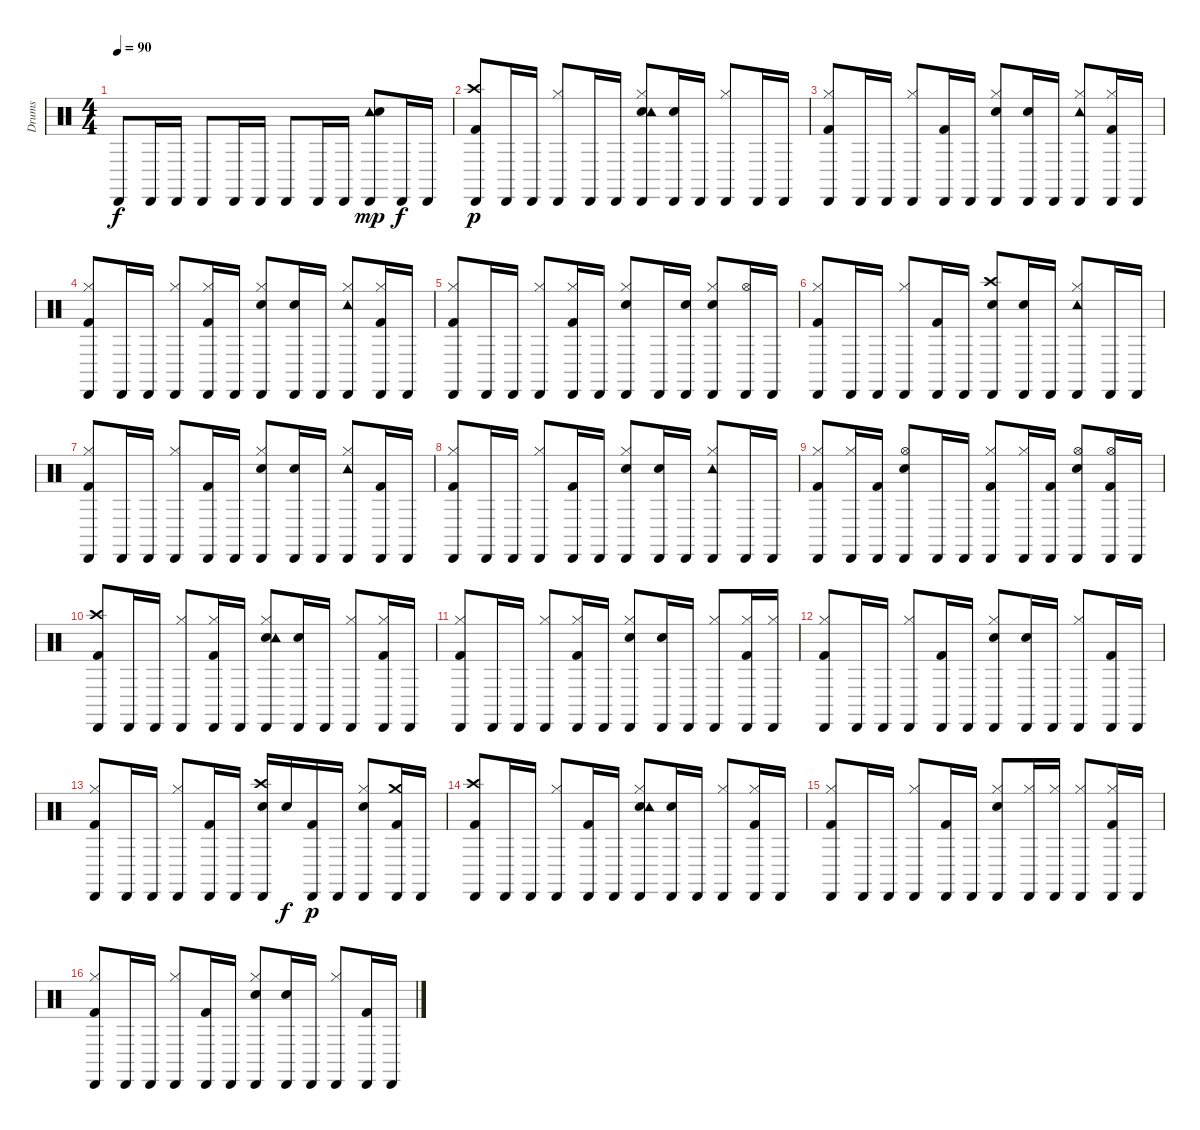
\track ("Drums" "Drums") {instrument percussion}
\staff {score}
\articulation defaults
\ts (4 4)
\tempo 90
\clef neutral
\ks c "Cabasa (hit)".8{dy f} "Cabasa (hit)".16 "Cabasa (hit)".16 "Cabasa (hit)".8 "Cabasa (hit)".16 "Cabasa (hit)".16 "Cabasa (hit)".8 "Cabasa (hit)".16 "Cabasa (hit)".16
("Tambourine (hit)" "Cabasa (hit)" "Electric Snare (hit)").8{dy mp} "Cabasa (hit)".16{dy f} "Cabasa (hit)".16 |
("Crash high (hit)" "Cabasa (hit)" "Kick (hit) 2").8{dy p} "Cabasa (hit)".16 "Cabasa (hit)".16 ("Hi-Hat (closed)" "Cabasa (hit)").8 "Cabasa (hit)".16 "Cabasa (hit)".16 ("Hi-Hat (closed)" "Cabasa (hit)" "Electric Snare (hit)" "Tambourine (hit)").8 ("Cabasa (hit)" "Electric Snare (hit)").16 "Cabasa (hit)".16 ("Hi-Hat (closed)" "Cabasa (hit)").8 "Cabasa (hit)".16 "Cabasa (hit)".16 |
("Hi-Hat (closed)" "Cabasa (hit)" "Kick (hit) 2").8 "Cabasa (hit)".16 "Cabasa (hit)".16 ("Hi-Hat (closed)" "Cabasa (hit)").8 ("Cabasa (hit)" "Kick (hit) 2").16 "Cabasa (hit)".16 ("Hi-Hat (closed)" "Cabasa (hit)" "Electric Snare (hit)").8 ("Cabasa (hit)" "Electric Snare (hit)").16 "Cabasa (hit)".16 ("Hi-Hat (closed)" "Cabasa (hit)" "Tambourine (hit)").8 ("Hi-Hat (closed)" "Cabasa (hit)" "Kick (hit) 2").16 "Cabasa (hit)".16 |
("Hi-Hat (closed)" "Cabasa (hit)" "Kick (hit) 2").8 "Cabasa (hit)".16 "Cabasa (hit)".16 ("Hi-Hat (closed)" "Cabasa (hit)").8 ("Hi-Hat (closed)" "Cabasa (hit)" "Kick (hit) 2").16 "Cabasa (hit)".16 ("Hi-Hat (closed)" "Cabasa (hit)" "Electric Snare (hit)").8 ("Cabasa (hit)" "Electric Snare (hit)").16 "Cabasa (hit)".16 ("Hi-Hat (closed)" "Cabasa (hit)" "Tambourine (hit)").8 ("Hi-Hat (closed)" "Cabasa (hit)" "Kick (hit) 2").16 "Cabasa (hit)".16 |
("Hi-Hat (closed)" "Cabasa (hit)" "Kick (hit) 2").8 "Cabasa (hit)".16 "Cabasa (hit)".16 ("Hi-Hat (closed)" "Cabasa (hit)").8 ("Hi-Hat (closed)" "Cabasa (hit)" "Kick (hit) 2").16 "Cabasa (hit)".16 ("Hi-Hat (closed)" "Cabasa (hit)" "Electric Snare (hit)").8 "Cabasa (hit)".16 ("Cabasa (hit)" "Electric Snare (hit)").16 ("Hi-Hat (closed)" "Cabasa (hit)" "Electric Snare (hit)").8 ("Hi-Hat (open)" "Cabasa (hit)").16 "Cabasa (hit)".16 |
("Hi-Hat (closed)" "Cabasa (hit)" "Kick (hit) 2").8 "Cabasa (hit)".16 "Cabasa (hit)".16 ("Hi-Hat (closed)" "Cabasa (hit)").8 ("Cabasa (hit)" "Kick (hit) 2").16 "Cabasa (hit)".16 ("Crash high (hit)" "Cabasa (hit)" "Electric Snare (hit)").8 ("Cabasa (hit)" "Electric Snare (hit)").16 "Cabasa (hit)".16 ("Hi-Hat (closed)" "Cabasa (hit)" "Tambourine (hit)").8 "Cabasa (hit)".16 "Cabasa (hit)".16 |
("Hi-Hat (closed)" "Cabasa (hit)" "Kick (hit) 2").8 "Cabasa (hit)".16 "Cabasa (hit)".16 ("Hi-Hat (closed)" "Cabasa (hit)").8 ("Cabasa (hit)" "Kick (hit) 2").16 "Cabasa (hit)".16 ("Hi-Hat (closed)" "Cabasa (hit)" "Electric Snare (hit)").8 ("Cabasa (hit)" "Electric Snare (hit)").16 "Cabasa (hit)".16 ("Hi-Hat (closed)" "Cabasa (hit)" "Tambourine (hit)").8 ("Cabasa (hit)" "Kick (hit) 2").16 "Cabasa (hit)".16 |
("Hi-Hat (closed)" "Cabasa (hit)" "Kick (hit) 2").8 "Cabasa (hit)".16 "Cabasa (hit)".16 ("Hi-Hat (closed)" "Cabasa (hit)").8 ("Cabasa (hit)" "Kick (hit) 2").16 "Cabasa (hit)".16 ("Hi-Hat (closed)" "Cabasa (hit)" "Electric Snare (hit)").8 ("Cabasa (hit)" "Electric Snare (hit)").16 "Cabasa (hit)".16 ("Hi-Hat (closed)" "Cabasa (hit)" "Tambourine (hit)").8 "Cabasa (hit)".16 "Cabasa (hit)".16 |
("Hi-Hat (closed)" "Cabasa (hit)" "Kick (hit) 2").8 ("Hi-Hat (closed)" "Cabasa (hit)").16 ("Cabasa (hit)" "Kick (hit) 2").16 ("Hi-Hat (open)" "Cabasa (hit)" "Electric Snare (hit)").8 "Cabasa (hit)".16 "Cabasa (hit)".16 ("Hi-Hat (closed)" "Cabasa (hit)" "Kick (hit) 2").8 ("Hi-Hat (closed)" "Cabasa (hit)").16 ("Cabasa (hit)" "Kick (hit) 2").16 ("Hi-Hat (open)" "Cabasa (hit)" "Electric Snare (hit)").8 ("Hi-Hat (open)" "Cabasa (hit)" "Kick (hit) 2").16 "Cabasa (hit)".16 |
("Crash high (hit)" "Cabasa (hit)" "Kick (hit) 2").8 "Cabasa (hit)".16 "Cabasa (hit)".16 ("Hi-Hat (closed)" "Cabasa (hit)").8 ("Hi-Hat (closed)" "Cabasa (hit)" "Kick (hit) 2").16 "Cabasa (hit)".16 ("Hi-Hat (closed)" "Cabasa (hit)" "Electric Snare (hit)" "Tambourine (hit)").8 ("Cabasa (hit)" "Electric Snare (hit)").16 "Cabasa (hit)".16 ("Hi-Hat (closed)" "Cabasa (hit)").8 ("Hi-Hat (closed)" "Cabasa (hit)" "Kick (hit) 2").16 "Cabasa (hit)".16 |
("Hi-Hat (closed)" "Cabasa (hit)" "Kick (hit) 2").8 "Cabasa (hit)".16 "Cabasa (hit)".16 ("Hi-Hat (closed)" "Cabasa (hit)").8 ("Hi-Hat (closed)" "Cabasa (hit)" "Kick (hit) 2").16 "Cabasa (hit)".16 ("Hi-Hat (closed)" "Cabasa (hit)" "Electric Snare (hit)").8 ("Cabasa (hit)" "Electric Snare (hit)").16 "Cabasa (hit)".16 ("Hi-Hat (closed)" "Cabasa (hit)").8 ("Hi-Hat (closed)" "Cabasa (hit)" "Kick (hit) 2").16 ("Hi-Hat (closed)" "Cabasa (hit)").16 |
("Hi-Hat (closed)" "Cabasa (hit)" "Kick (hit) 2").8 "Cabasa (hit)".16 "Cabasa (hit)".16 ("Hi-Hat (closed)" "Cabasa (hit)").8 ("Cabasa (hit)" "Kick (hit) 2").16 "Cabasa (hit)".16 ("Hi-Hat (closed)" "Cabasa (hit)" "Electric Snare (hit)").8 ("Cabasa (hit)" "Electric Snare (hit)").16 "Cabasa (hit)".16 ("Hi-Hat (closed)" "Cabasa (hit)").8 ("Cabasa (hit)" "Kick (hit) 2").16 "Cabasa (hit)".16 |
("Hi-Hat (closed)" "Cabasa (hit)" "Kick (hit) 2").8 "Cabasa (hit)".16 "Cabasa (hit)".16 ("Hi-Hat (closed)" "Cabasa (hit)").8 ("Cabasa (hit)" "Kick (hit) 2").16 "Cabasa (hit)".16 ("Crash high (hit)" "Cabasa (hit)" "Electric Snare (hit)").16 "Electric Snare (hit)".16{dy f} ("Cabasa (hit)" "Kick (hit) 2").16{dy p} "Cabasa (hit)".16 ("Hi-Hat (closed)" "Cabasa (hit)" "Electric Snare (hit)").8 ("Crash medium (hit)" "Cabasa (hit)" "Kick (hit) 2").16 "Cabasa (hit)".16 |
("Crash high (hit)" "Cabasa (hit)" "Kick (hit) 2").8 "Cabasa (hit)".16 "Cabasa (hit)".16 ("Hi-Hat (closed)" "Cabasa (hit)").8 ("Cabasa (hit)" "Kick (hit) 2").16 "Cabasa (hit)".16 ("Hi-Hat (closed)" "Cabasa (hit)" "Electric Snare (hit)" "Tambourine (hit)").8 ("Cabasa (hit)" "Electric Snare (hit)").16 "Cabasa (hit)".16 ("Hi-Hat (closed)" "Cabasa (hit)").8 ("Hi-Hat (closed)" "Cabasa (hit)" "Kick (hit) 2").16 "Cabasa (hit)".16 |
("Hi-Hat (closed)" "Cabasa (hit)" "Kick (hit) 2").8 "Cabasa (hit)".16 "Cabasa (hit)".16 ("Hi-Hat (closed)" "Cabasa (hit)").8 ("Cabasa (hit)" "Kick (hit) 2").16 "Cabasa (hit)".16 ("Hi-Hat (closed)" "Cabasa (hit)" "Electric Snare (hit)").8 ("Hi-Hat (closed)" "Cabasa (hit)").16 ("Hi-Hat (closed)" "Cabasa (hit)").16 ("Hi-Hat (closed)" "Cabasa (hit)").8 ("Hi-Hat (closed)" "Cabasa (hit)" "Kick (hit) 2").16 "Cabasa (hit)".16 |
("Hi-Hat (closed)" "Cabasa (hit)" "Kick (hit) 2").8 "Cabasa (hit)".16 "Cabasa (hit)".16 ("Hi-Hat (closed)" "Cabasa (hit)").8 ("Cabasa (hit)" "Kick (hit) 2").16 "Cabasa (hit)".16 ("Hi-Hat (closed)" "Cabasa (hit)" "Electric Snare (hit)").8 ("Cabasa (hit)" "Electric Snare (hit)").16 "Cabasa (hit)".16 ("Hi-Hat (closed)" "Cabasa (hit)").8 ("Cabasa (hit)" "Kick (hit) 2").16 "Cabasa (hit)".16
